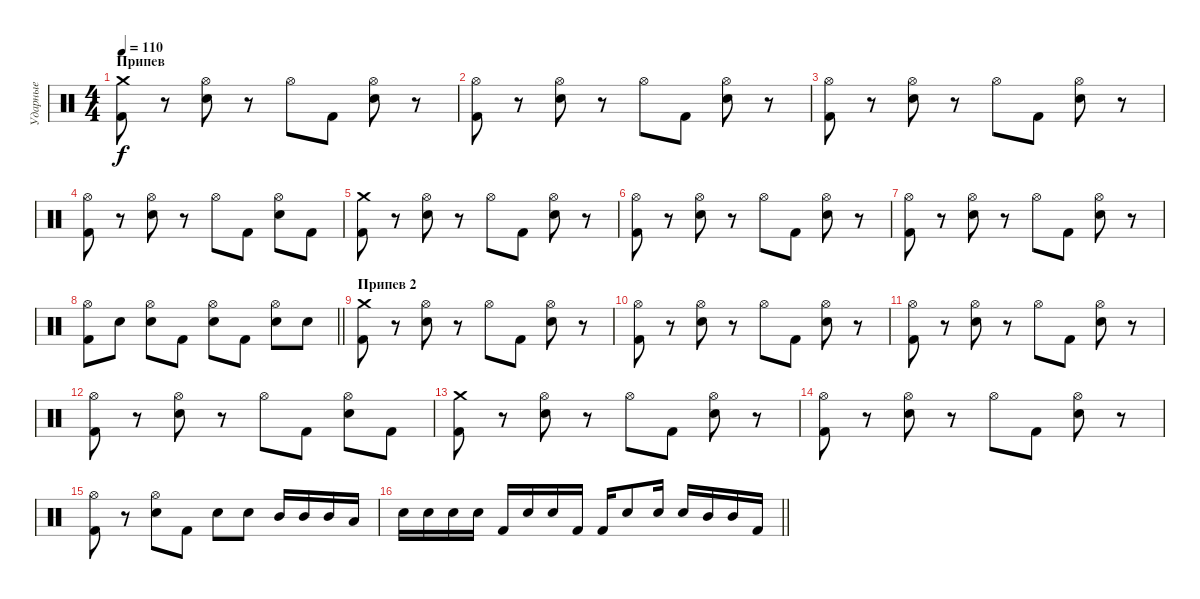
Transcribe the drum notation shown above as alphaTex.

\track ("Ударные" "Ударные") {instrument percussion}
\staff {score}
\articulation defaults
\ts (4 4)
\section ("" "Припев")
\tempo 110
\clef neutral
\ks c
("Crash medium (hit)" "Kick (hit) 2").8{dy f} r.8 ("Hi-Hat (open)" "Snare (hit) 2").8 r.8 "Hi-Hat (open)".8 "Kick (hit) 2".8 ("Hi-Hat (open)" "Snare (hit) 2").8 r.8 |
("Hi-Hat (open)" "Kick (hit) 2").8 r.8 ("Hi-Hat (open)" "Snare (hit) 2").8 r.8 "Hi-Hat (open)".8 "Kick (hit) 2".8 ("Hi-Hat (open)" "Snare (hit) 2").8 r.8 |
("Hi-Hat (open)" "Kick (hit) 2").8 r.8 ("Hi-Hat (open)" "Snare (hit) 2").8 r.8 "Hi-Hat (open)".8 "Kick (hit) 2".8 ("Hi-Hat (open)" "Snare (hit) 2").8 r.8 |
("Hi-Hat (open)" "Kick (hit) 2").8 r.8 ("Hi-Hat (open)" "Snare (hit) 2").8 r.8 "Hi-Hat (open)".8 "Kick (hit) 2".8 ("Hi-Hat (open)" "Snare (hit) 2").8 "Kick (hit) 2".8 |
("Crash medium (hit)" "Kick (hit) 2").8 r.8 ("Hi-Hat (open)" "Snare (hit) 2").8 r.8 "Hi-Hat (open)".8 "Kick (hit) 2".8 ("Hi-Hat (open)" "Snare (hit) 2").8 r.8 |
("Hi-Hat (open)" "Kick (hit) 2").8 r.8 ("Hi-Hat (open)" "Snare (hit) 2").8 r.8 "Hi-Hat (open)".8 "Kick (hit) 2".8 ("Hi-Hat (open)" "Snare (hit) 2").8 r.8 |
("Hi-Hat (open)" "Kick (hit) 2").8 r.8 ("Hi-Hat (open)" "Snare (hit) 2").8 r.8 "Hi-Hat (open)".8 "Kick (hit) 2".8 ("Hi-Hat (open)" "Snare (hit) 2").8 r.8 |
\barLineRight lightlight
("Hi-Hat (open)" "Kick (hit) 2").8 "Snare (hit) 2".8 ("Hi-Hat (open)" "Snare (hit) 2").8 "Kick (hit) 2".8 ("Hi-Hat (open)" "Snare (hit) 2").8 "Kick (hit) 2".8 ("Hi-Hat (open)" "Snare (hit) 2").8 "Snare (hit) 2".8 |
\section ("" "Припев 2")
("Crash medium (hit)" "Kick (hit) 2").8 r.8 ("Hi-Hat (open)" "Snare (hit) 2").8 r.8 "Hi-Hat (open)".8 "Kick (hit) 2".8 ("Hi-Hat (open)" "Snare (hit) 2").8 r.8 |
("Hi-Hat (open)" "Kick (hit) 2").8 r.8 ("Hi-Hat (open)" "Snare (hit) 2").8 r.8 "Hi-Hat (open)".8 "Kick (hit) 2".8 ("Hi-Hat (open)" "Snare (hit) 2").8 r.8 |
("Hi-Hat (open)" "Kick (hit) 2").8 r.8 ("Hi-Hat (open)" "Snare (hit) 2").8 r.8 "Hi-Hat (open)".8 "Kick (hit) 2".8 ("Hi-Hat (open)" "Snare (hit) 2").8 r.8 |
("Hi-Hat (open)" "Kick (hit) 2").8 r.8 ("Hi-Hat (open)" "Snare (hit) 2").8 r.8 "Hi-Hat (open)".8 "Kick (hit) 2".8 ("Hi-Hat (open)" "Snare (hit) 2").8 "Kick (hit) 2".8 |
("Crash medium (hit)" "Kick (hit) 2").8 r.8 ("Hi-Hat (open)" "Snare (hit) 2").8 r.8 "Hi-Hat (open)".8 "Kick (hit) 2".8 ("Hi-Hat (open)" "Snare (hit) 2").8 r.8 |
("Hi-Hat (open)" "Kick (hit) 2").8 r.8 ("Hi-Hat (open)" "Snare (hit) 2").8 r.8 "Hi-Hat (open)".8 "Kick (hit) 2".8 ("Hi-Hat (open)" "Snare (hit) 2").8 r.8 |
("Hi-Hat (open)" "Kick (hit) 2").8 r.8 ("Hi-Hat (open)" "Snare (hit) 2").8 "Kick (hit) 2".8 "Snare (hit) 2".8 "Snare (hit) 2".8 "Mid Tom (hit)".16 "Mid Tom (hit)".16 "Mid Tom (hit)".16 "Low Tom (hit)".16 |
\barLineRight lightlight "Snare (hit) 2".16 "Snare (hit) 2".16 "Snare (hit) 2".16 "Snare (hit) 2".16 "Kick (hit) 2".16 "Snare (hit) 2".16 "Snare (hit) 2".16 "Kick (hit) 2".16 "Kick (hit) 2".16 "Snare (hit) 2".8 "Snare (hit) 2".16 "Snare (hit) 2".16 "Mid Tom (hit)".16 "Mid Tom (hit)".16 "Kick (hit) 2".16
